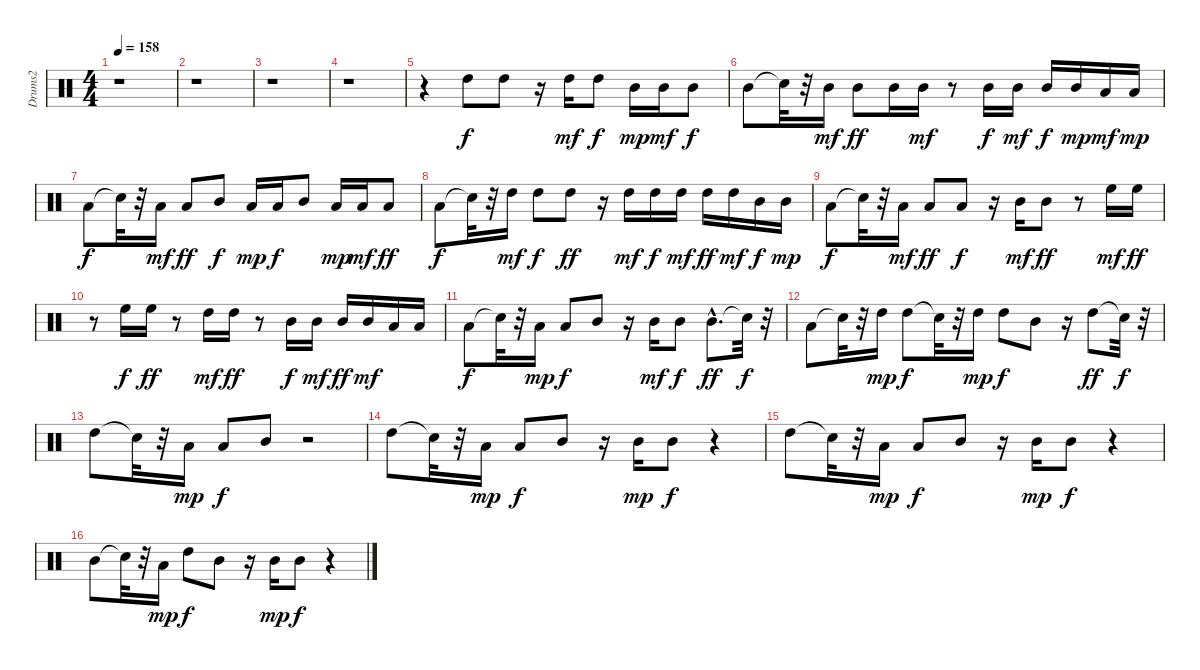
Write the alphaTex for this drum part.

\track ("Drums2" "Drums2") {instrument percussion}
\staff {score}
\articulation defaults
\ts (4 4)
\tempo 158
\clef neutral
\ks c
r.1{dy f} |
r.1 |
r.1 |
r.1 |
r.4 "High Tom (hit)".8 "High Tom (hit)".8 r.16 "High Tom (hit)".16{dy mf} "High Tom (hit)".8{dy f} "Mid Tom (hit)".16{dy mp} "Mid Tom (hit)".16{dy mf} "Mid Tom (hit)".8{dy f} |
"Mid Tom (hit)".8 "Snare (hit)"{t}.32 r.32 "Mid Tom (hit)".16{dy mf} "Mid Tom (hit)".8{dy ff} "Mid Tom (hit)".16 "Mid Tom (hit)".16{dy mf} r.8 "Mid Tom (hit)".16{dy f} "Mid Tom (hit)".16{dy mf} "Mid Tom (hit)".16{dy f} "Mid Tom (hit)".16{dy mp} "Low Tom (hit)".16{dy mf} "Low Tom (hit)".16{dy mp} |
"Low Tom (hit)".8{dy f} "Snare (hit)"{t}.32 r.32 "Low Tom (hit)".16{dy mf} "Low Tom (hit)".8{dy ff} "Mid Tom (hit)".8{dy f} "Low Tom (hit)".16{dy mp} "Low Tom (hit)".16{dy f} "Mid Tom (hit)".8 "Low Tom (hit)".16{dy mp} "Low Tom (hit)".16{dy mf} "Low Tom (hit)".8{dy ff} |
"Low Tom (hit)".8{dy f} "Snare (hit)"{t}.32 r.32 "High Tom (hit)".16{dy mf} "High Tom (hit)".8{dy f} "High Tom (hit)".8{dy ff} r.16 "High Tom (hit)".16{dy mf} "High Tom (hit)".16{dy f} "High Tom (hit)".16{dy mf} "High Tom (hit)".16{dy ff} "High Tom (hit)".16{dy mf} "Mid Tom (hit)".16{dy f} "Mid Tom (hit)".16{dy mp} |
"Low Tom (hit)".8{dy f} "Snare (hit)"{t}.32 r.32 "Low Tom (hit)".16{dy mf} "Low Tom (hit)".8{dy ff} "Low Tom (hit)".8{dy f} r.16 "Mid Tom (hit)".16{dy mf} "Mid Tom (hit)".8{dy ff} r.8 "High Floor Tom (hit)".16{dy mf} "High Floor Tom (hit)".16{dy ff} |
r.8 "High Floor Tom (hit)".16{dy f} "High Floor Tom (hit)".16{dy ff} r.8 "High Tom (hit)".16{dy mf} "High Tom (hit)".16{dy ff} r.8 "Mid Tom (hit)".16{dy f} "Mid Tom (hit)".16{dy mf} "Mid Tom (hit)".16{dy ff} "Mid Tom (hit)".16{dy mf} "Low Tom (hit)".16 "Low Tom (hit)".16 |
"Low Tom (hit)".8{dy f} "Snare (hit)"{t}.32 r.32 "Low Tom (hit)".16{dy mp} "Low Tom (hit)".8{dy f} "Mid Tom (hit)".8 r.16 "Mid Tom (hit)".16{dy mf} "Mid Tom (hit)".8{dy f} "Mid Tom (hit)"{hac}.8{d dy ff} "Snare (hit)"{t}.32{dy f} r.32 |
"Low Tom (hit)".8 "Snare (hit)"{t}.32 r.32 "High Tom (hit)".16{dy mp} "High Tom (hit)".8{dy f} "Snare (hit)"{t}.32 r.32 "High Tom (hit)".16{dy mp} "High Tom (hit)".8{dy f} "Mid Tom (hit)".8 r.16 "High Tom (hit)".8{dy ff} "Snare (hit)"{t}.32{dy f} r.32 |
"High Tom (hit)".8 "Snare (hit)"{t}.32 r.32 "Low Tom (hit)".16{dy mp} "Low Tom (hit)".8{dy f} "Mid Tom (hit)".8 r.2 |
"High Tom (hit)".8 "Snare (hit)"{t}.32 r.32 "Low Tom (hit)".16{dy mp} "Low Tom (hit)".8{dy f} "Mid Tom (hit)".8 r.16 "Mid Tom (hit)".16{dy mp} "Mid Tom (hit)".8{dy f} r.4 |
"High Tom (hit)".8 "Snare (hit)"{t}.32 r.32 "Low Tom (hit)".16{dy mp} "Low Tom (hit)".8{dy f} "Mid Tom (hit)".8 r.16 "Mid Tom (hit)".16{dy mp} "Mid Tom (hit)".8{dy f} r.4 |
"Mid Tom (hit)".8 "Snare (hit)"{t}.32 r.32 "Low Tom (hit)".16{dy mp} "High Tom (hit)".8{dy f} "Mid Tom (hit)".8 r.16 "Mid Tom (hit)".16{dy mp} "Mid Tom (hit)".8{dy f} r.4
